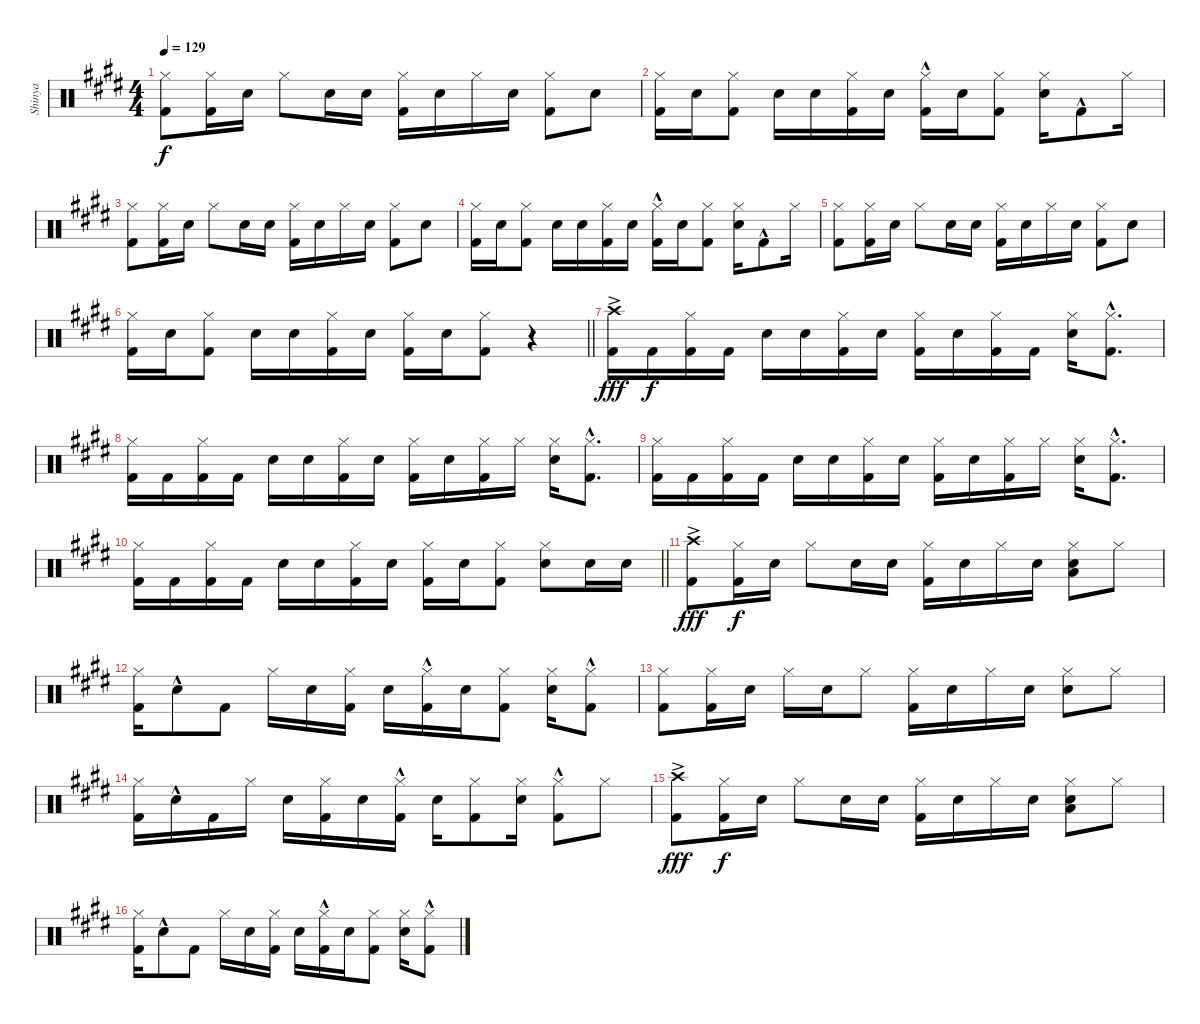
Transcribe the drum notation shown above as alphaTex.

\track ("Shinya" "Shinya") {instrument percussion}
\staff {score}
\articulation defaults
\ts (4 4)
\tempo 129
\clef neutral
\ks e
("Hi-Hat (closed)" "Kick (hit) 2").8{dy f} ("Hi-Hat (closed)" "Kick (hit) 2").16 "Snare (hit) 2".16 "Hi-Hat (closed)".8 "Snare (hit) 2".16 "Snare (hit) 2".16 ("Hi-Hat (closed)" "Kick (hit) 2").16 "Snare (hit) 2".16 "Hi-Hat (closed)".16 "Snare (hit) 2".16 ("Hi-Hat (closed)" "Kick (hit) 2").8 "Snare (hit) 2".8 |
("Hi-Hat (closed)" "Kick (hit) 2").16 "Snare (hit) 2".16 ("Hi-Hat (closed)" "Kick (hit) 2").8 "Snare (hit) 2".16 "Snare (hit) 2".16 ("Hi-Hat (closed)" "Kick (hit) 2").16 "Snare (hit) 2".16 ("Hi-Hat (closed)" "Kick (hit) 2"{hac}).16 "Snare (hit) 2".16 ("Hi-Hat (closed)" "Kick (hit) 2").8 ("Hi-Hat (closed)" "Snare (hit) 2").16 "Kick (hit) 2"{hac}.8 "Hi-Hat (closed)".16 |
("Hi-Hat (closed)" "Kick (hit) 2").8 ("Hi-Hat (closed)" "Kick (hit) 2").16 "Snare (hit) 2".16 "Hi-Hat (closed)".8 "Snare (hit) 2".16 "Snare (hit) 2".16 ("Hi-Hat (closed)" "Kick (hit) 2").16 "Snare (hit) 2".16 "Hi-Hat (closed)".16 "Snare (hit) 2".16 ("Hi-Hat (closed)" "Kick (hit) 2").8 "Snare (hit) 2".8 |
("Hi-Hat (closed)" "Kick (hit) 2").16 "Snare (hit) 2".16 ("Hi-Hat (closed)" "Kick (hit) 2").8 "Snare (hit) 2".16 "Snare (hit) 2".16 ("Hi-Hat (closed)" "Kick (hit) 2").16 "Snare (hit) 2".16 ("Hi-Hat (closed)" "Kick (hit) 2"{hac}).16 "Snare (hit) 2".16 ("Hi-Hat (closed)" "Kick (hit) 2").8 ("Hi-Hat (closed)" "Snare (hit) 2").16 "Kick (hit) 2"{hac}.8 "Hi-Hat (closed)".16 |
("Hi-Hat (closed)" "Kick (hit) 2").8 ("Hi-Hat (closed)" "Kick (hit) 2").16 "Snare (hit) 2".16 "Hi-Hat (closed)".8 "Snare (hit) 2".16 "Snare (hit) 2".16 ("Hi-Hat (closed)" "Kick (hit) 2").16 "Snare (hit) 2".16 "Hi-Hat (closed)".16 "Snare (hit) 2".16 ("Hi-Hat (closed)" "Kick (hit) 2").8 "Snare (hit) 2".8 |
\barLineRight lightlight
("Hi-Hat (closed)" "Kick (hit) 2").16 "Snare (hit) 2".16 ("Hi-Hat (closed)" "Kick (hit) 2").8 "Snare (hit) 2".16 "Snare (hit) 2".16 ("Hi-Hat (closed)" "Kick (hit) 2").16 "Snare (hit) 2".16 ("Hi-Hat (closed)" "Kick (hit) 2").16 "Snare (hit) 2".16 ("Hi-Hat (closed)" "Kick (hit) 2").8 r.4 |
("Crash high (hit)"{ac} "Kick (hit) 2").16{dy fff} "Kick (hit) 2".16{dy f} ("Hi-Hat (closed)" "Kick (hit) 2").16 "Kick (hit) 2".16 "Snare (hit) 2".16 "Snare (hit) 2".16 ("Hi-Hat (closed)" "Kick (hit) 2").16 "Snare (hit) 2".16 ("Hi-Hat (closed)" "Kick (hit) 2").16 "Snare (hit) 2".16 ("Hi-Hat (closed)" "Kick (hit) 2").16 "Kick (hit) 2".16 ("Hi-Hat (closed)" "Snare (hit) 2").16 ("Hi-Hat (closed)"{hac} "Kick (hit) 2"{hac}).8{d} |
("Hi-Hat (closed)" "Kick (hit) 2").16 "Kick (hit) 2".16 ("Hi-Hat (closed)" "Kick (hit) 2").16 "Kick (hit) 2".16 "Snare (hit) 2".16 "Snare (hit) 2".16 ("Hi-Hat (closed)" "Kick (hit) 2").16 "Snare (hit) 2".16 ("Hi-Hat (closed)" "Kick (hit) 2").16 "Snare (hit) 2".16 ("Hi-Hat (closed)" "Kick (hit) 2").16 "Hi-Hat (closed)".16 ("Hi-Hat (closed)" "Snare (hit) 2").16 ("Hi-Hat (closed)"{hac} "Kick (hit) 2"{hac}).8{d} |
("Hi-Hat (closed)" "Kick (hit) 2").16 "Kick (hit) 2".16 ("Hi-Hat (closed)" "Kick (hit) 2").16 "Kick (hit) 2".16 "Snare (hit) 2".16 "Snare (hit) 2".16 ("Hi-Hat (closed)" "Kick (hit) 2").16 "Snare (hit) 2".16 ("Hi-Hat (closed)" "Kick (hit) 2").16 "Snare (hit) 2".16 ("Hi-Hat (closed)" "Kick (hit) 2").16 "Hi-Hat (closed)".16 ("Hi-Hat (closed)" "Snare (hit) 2").16 ("Hi-Hat (closed)"{hac} "Kick (hit) 2"{hac}).8{d} |
\barLineRight lightlight
("Hi-Hat (closed)" "Kick (hit) 2").16 "Kick (hit) 2".16 ("Hi-Hat (closed)" "Kick (hit) 2").16 "Kick (hit) 2".16 "Snare (hit) 2".16 "Snare (hit) 2".16 ("Hi-Hat (closed)" "Kick (hit) 2").16 "Snare (hit) 2".16 ("Hi-Hat (closed)" "Kick (hit) 2").16 "Snare (hit) 2".16 ("Hi-Hat (closed)" "Kick (hit) 2").8 ("Hi-Hat (closed)" "Snare (hit) 2").8 "Snare (hit) 2".16 "Snare (hit) 2".16 |
("Crash high (hit)"{ac} "Kick (hit) 2").8{dy fff} ("Hi-Hat (closed)" "Kick (hit) 2").16{dy f} "Snare (hit) 2".16 "Hi-Hat (closed)".8 "Snare (hit) 2".16 "Snare (hit) 2".16 ("Hi-Hat (closed)" "Kick (hit) 2").16 "Snare (hit) 2".16 "Hi-Hat (closed)".16 "Snare (hit) 2".16 ("Hi-Hat (closed)" "Snare (hit) 2" "Low Floor Tom (hit)").8 "Hi-Hat (closed)".8 |
("Hi-Hat (closed)" "Kick (hit) 2").16 "Snare (hit) 2"{hac}.8 "Kick (hit) 2".8 "Hi-Hat (closed)".16 "Snare (hit) 2".16 ("Hi-Hat (closed)" "Kick (hit) 2").16 "Snare (hit) 2".16 ("Hi-Hat (closed)" "Kick (hit) 2"{hac}).16 "Snare (hit) 2".16 ("Hi-Hat (closed)" "Kick (hit) 2").8 ("Hi-Hat (closed)" "Snare (hit) 2").16 ("Hi-Hat (closed)"{hac} "Kick (hit) 2").8 |
("Hi-Hat (closed)" "Kick (hit) 2").8 ("Hi-Hat (closed)" "Kick (hit) 2").16 "Snare (hit) 2".16 "Hi-Hat (closed)".16 "Snare (hit) 2".16 "Hi-Hat (closed)".8 ("Hi-Hat (closed)" "Kick (hit) 2").16 "Snare (hit) 2".16 "Hi-Hat (closed)".16 "Snare (hit) 2".16 ("Hi-Hat (closed)" "Snare (hit) 2").8 "Hi-Hat (closed)".8 |
("Hi-Hat (closed)" "Kick (hit) 2").16 "Snare (hit) 2"{hac}.16 "Kick (hit) 2".16 "Hi-Hat (closed)".16 "Snare (hit) 2".16 ("Hi-Hat (closed)" "Kick (hit) 2").16 "Snare (hit) 2".16 ("Hi-Hat (closed)" "Kick (hit) 2"{hac}).16 "Snare (hit) 2".16 ("Hi-Hat (closed)" "Kick (hit) 2").8 ("Hi-Hat (closed)" "Snare (hit) 2").16 ("Hi-Hat (closed)" "Kick (hit) 2"{hac}).8 "Hi-Hat (closed)".8 |
("Crash high (hit)"{ac} "Kick (hit) 2").8{dy fff} ("Hi-Hat (closed)" "Kick (hit) 2").16{dy f} "Snare (hit) 2".16 "Hi-Hat (closed)".8 "Snare (hit) 2".16 "Snare (hit) 2".16 ("Hi-Hat (closed)" "Kick (hit) 2").16 "Snare (hit) 2".16 "Hi-Hat (closed)".16 "Snare (hit) 2".16 ("Hi-Hat (closed)" "Snare (hit) 2" "Low Floor Tom (hit)").8 "Hi-Hat (closed)".8 |
("Hi-Hat (closed)" "Kick (hit) 2").16 "Snare (hit) 2"{hac}.8 "Kick (hit) 2".8 "Hi-Hat (closed)".16 "Snare (hit) 2".16 ("Hi-Hat (closed)" "Kick (hit) 2").16 "Snare (hit) 2".16 ("Hi-Hat (closed)" "Kick (hit) 2"{hac}).16 "Snare (hit) 2".16 ("Hi-Hat (closed)" "Kick (hit) 2").8 ("Hi-Hat (closed)" "Snare (hit) 2").16 ("Hi-Hat (closed)"{hac} "Kick (hit) 2").8
